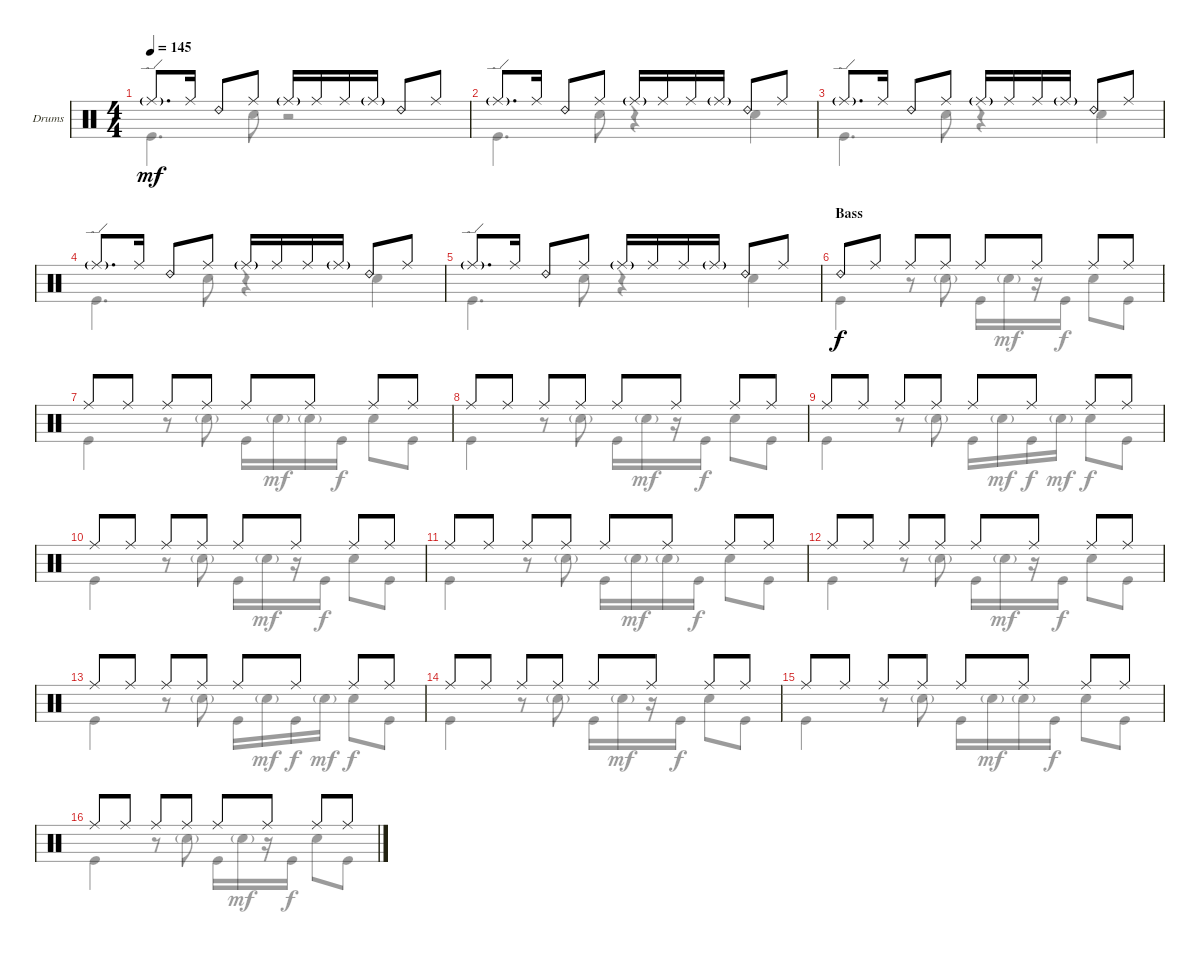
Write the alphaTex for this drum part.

\defaultSystemsLayout 4
\bracketExtendMode groupsimilarinstruments
\firstSystemTrackNameOrientation horizontal
\otherSystemsTrackNameOrientation horizontal
\track ("Drumkit" "Drums") {instrument percussion}
\staff {score}
\articulation defaults
\voice
\ts (4 4)
\tempo 145
\clef neutral
\ks c "Ride (edge)"{g}.8{d dy mf} "Ride (middle)".16 "Ride (bell) 2".8 "Ride (middle)".8 "Ride (middle)"{g}.16 "Ride (middle)".16 "Ride (middle)".16 "Ride (middle)"{g}.16 "Ride (bell) 2".8 "Ride (middle)".8
|
"Ride (edge)"{g}.8{d} "Ride (middle)".16 "Ride (bell) 2".8 "Ride (middle)".8 "Ride (middle)"{g}.16 "Ride (middle)".16 "Ride (middle)".16 "Ride (middle)"{g}.16 "Ride (bell) 2".8 "Ride (middle)".8 |
"Ride (edge)"{g}.8{d} "Ride (middle)".16 "Ride (bell) 2".8 "Ride (middle)".8 "Ride (middle)"{g}.16 "Ride (middle)".16 "Ride (middle)".16 "Ride (middle)"{g}.16 "Ride (bell) 2".8 "Ride (middle)".8 |
"Ride (edge)"{g}.8{d} "Ride (middle)".16 "Ride (bell) 2".8 "Ride (middle)".8 "Ride (middle)"{g}.16 "Ride (middle)".16 "Ride (middle)".16 "Ride (middle)"{g}.16 "Ride (bell) 2".8 "Ride (middle)".8 |
"Ride (edge)"{g}.8{d} "Ride (middle)".16 "Ride (bell) 2".8 "Ride (middle)".8 "Ride (middle)"{g}.16 "Ride (middle)".16 "Ride (middle)".16 "Ride (middle)"{g}.16 "Ride (bell) 2".8 "Ride (middle)".8 |
\section ("" "Bass")
"Ride (bell) 2".8{dy f} "Ride (middle)".8 "Ride (middle)".8 "Ride (middle)".8 "Ride (middle)".8 "Ride (middle)".8 "Ride (middle)".8 "Ride (middle)".8 |
"Ride (middle)".8 "Ride (middle)".8 "Ride (middle)".8 "Ride (middle)".8 "Ride (middle)".8 "Ride (middle)".8 "Ride (middle)".8 "Ride (middle)".8 |
"Ride (middle)".8 "Ride (middle)".8 "Ride (middle)".8 "Ride (middle)".8 "Ride (middle)".8 "Ride (middle)".8 "Ride (middle)".8 "Ride (middle)".8 |
"Ride (middle)".8 "Ride (middle)".8 "Ride (middle)".8 "Ride (middle)".8 "Ride (middle)".8 "Ride (middle)".8 "Ride (middle)".8 "Ride (middle)".8 |
"Ride (middle)".8 "Ride (middle)".8 "Ride (middle)".8 "Ride (middle)".8 "Ride (middle)".8 "Ride (middle)".8 "Ride (middle)".8 "Ride (middle)".8 |
"Ride (middle)".8 "Ride (middle)".8 "Ride (middle)".8 "Ride (middle)".8 "Ride (middle)".8 "Ride (middle)".8 "Ride (middle)".8 "Ride (middle)".8 |
"Ride (middle)".8 "Ride (middle)".8 "Ride (middle)".8 "Ride (middle)".8 "Ride (middle)".8 "Ride (middle)".8 "Ride (middle)".8 "Ride (middle)".8 |
"Ride (middle)".8 "Ride (middle)".8 "Ride (middle)".8 "Ride (middle)".8 "Ride (middle)".8 "Ride (middle)".8 "Ride (middle)".8 "Ride (middle)".8 |
"Ride (middle)".8 "Ride (middle)".8 "Ride (middle)".8 "Ride (middle)".8 "Ride (middle)".8 "Ride (middle)".8 "Ride (middle)".8 "Ride (middle)".8 |
"Ride (middle)".8 "Ride (middle)".8 "Ride (middle)".8 "Ride (middle)".8 "Ride (middle)".8 "Ride (middle)".8 "Ride (middle)".8 "Ride (middle)".8 |
"Ride (middle)".8 "Ride (middle)".8 "Ride (middle)".8 "Ride (middle)".8 "Ride (middle)".8 "Ride (middle)".8 "Ride (middle)".8 "Ride (middle)".8
\voice
\clef neutral
\ottava regular
\simile none
\ks c "Kick (hit)".4{d dy mf} "Snare (hit) 2".8
r.2 |
"Kick (hit)".4{d} "Snare (hit) 2".8 r.4 "Snare (hit) 2".4 |
"Kick (hit)".4{d} "Snare (hit) 2".8 r.4 "Snare (hit) 2".4 |
"Kick (hit)".4{d} "Snare (hit) 2".8 r.4 "Snare (hit) 2".4 |
"Kick (hit)".4{d} "Snare (hit) 2".8 r.4 "Snare (hit) 2".4 |
"Kick (hit)".4{dy f} r.8 "Snare (hit) 2"{g}.8 "Kick (hit)".16 "Snare (hit) 2"{g}.16{dy mf} r.16 "Kick (hit)".16{dy f} "Snare (hit) 2".8 "Kick (hit)".8 |
"Kick (hit)".4 r.8 "Snare (hit) 2"{g}.8 "Kick (hit)".16 "Snare (hit) 2"{g}.16{dy mf} "Snare (hit) 2"{g}.16 "Kick (hit)".16{dy f} "Snare (hit) 2".8 "Kick (hit)".8 |
"Kick (hit)".4 r.8 "Snare (hit) 2"{g}.8 "Kick (hit)".16 "Snare (hit) 2"{g}.16{dy mf} r.16 "Kick (hit)".16{dy f} "Snare (hit) 2".8 "Kick (hit)".8 |
"Kick (hit)".4 r.8 "Snare (hit) 2"{g}.8 "Kick (hit)".16 "Snare (hit) 2"{g}.16{dy mf} "Kick (hit)".16{dy f} "Snare (hit) 2"{g}.16{dy mf} "Snare (hit) 2".8{dy f} "Kick (hit)".8 |
"Kick (hit)".4 r.8 "Snare (hit) 2"{g}.8 "Kick (hit)".16 "Snare (hit) 2"{g}.16{dy mf} r.16 "Kick (hit)".16{dy f} "Snare (hit) 2".8 "Kick (hit)".8 |
"Kick (hit)".4 r.8 "Snare (hit) 2"{g}.8 "Kick (hit)".16 "Snare (hit) 2"{g}.16{dy mf} "Snare (hit) 2"{g}.16 "Kick (hit)".16{dy f} "Snare (hit) 2".8 "Kick (hit)".8 |
"Kick (hit)".4 r.8 "Snare (hit) 2"{g}.8 "Kick (hit)".16 "Snare (hit) 2"{g}.16{dy mf} r.16 "Kick (hit)".16{dy f} "Snare (hit) 2".8 "Kick (hit)".8 |
"Kick (hit)".4 r.8 "Snare (hit) 2"{g}.8 "Kick (hit)".16 "Snare (hit) 2"{g}.16{dy mf} "Kick (hit)".16{dy f} "Snare (hit) 2"{g}.16{dy mf} "Snare (hit) 2".8{dy f} "Kick (hit)".8 |
"Kick (hit)".4 r.8 "Snare (hit) 2"{g}.8 "Kick (hit)".16 "Snare (hit) 2"{g}.16{dy mf} r.16 "Kick (hit)".16{dy f} "Snare (hit) 2".8 "Kick (hit)".8 |
"Kick (hit)".4 r.8 "Snare (hit) 2"{g}.8 "Kick (hit)".16 "Snare (hit) 2"{g}.16{dy mf} "Snare (hit) 2"{g}.16 "Kick (hit)".16{dy f} "Snare (hit) 2".8 "Kick (hit)".8 |
"Kick (hit)".4 r.8 "Snare (hit) 2"{g}.8 "Kick (hit)".16 "Snare (hit) 2"{g}.16{dy mf} r.16 "Kick (hit)".16{dy f} "Snare (hit) 2".8 "Kick (hit)".8
